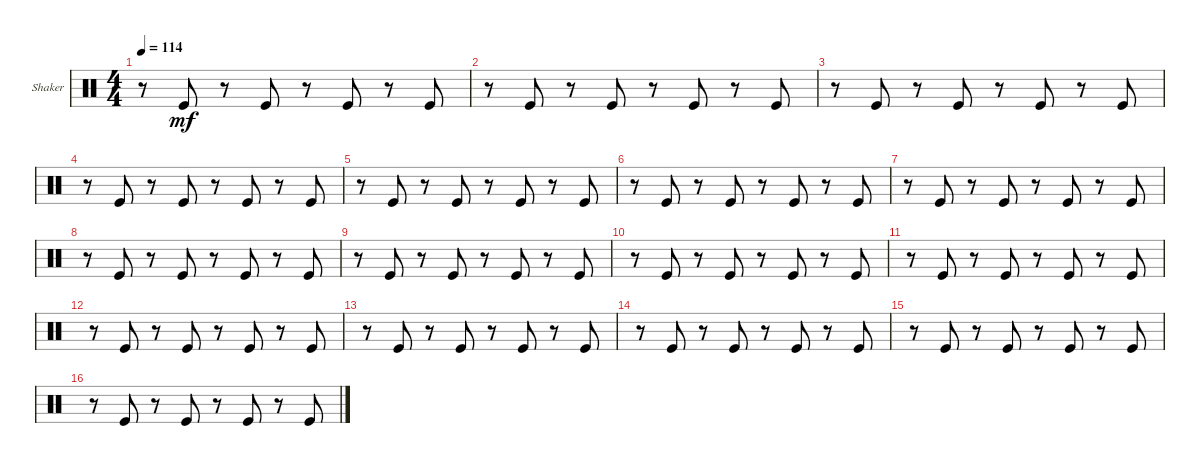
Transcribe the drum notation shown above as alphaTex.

\defaultSystemsLayout 4
\bracketExtendMode groupsimilarinstruments
\firstSystemTrackNameOrientation horizontal
\otherSystemsTrackNameOrientation horizontal
\track ("Shaker" "Shaker") {instrument percussion}
\staff {score}
\articulation defaults
\ts (4 4)
\tempo 114
\clef neutral
\ks c
r.8{dy mf} "Kick (hit)".8 r.8 "Kick (hit)".8 r.8 "Kick (hit)".8 r.8 "Kick (hit)".8 |
r.8 "Kick (hit)".8 r.8 "Kick (hit)".8 r.8 "Kick (hit)".8 r.8 "Kick (hit)".8 |
r.8 "Kick (hit)".8 r.8 "Kick (hit)".8 r.8 "Kick (hit)".8 r.8 "Kick (hit)".8 |
r.8 "Kick (hit)".8 r.8 "Kick (hit)".8 r.8 "Kick (hit)".8 r.8 "Kick (hit)".8 |
r.8 "Kick (hit)".8 r.8 "Kick (hit)".8 r.8 "Kick (hit)".8 r.8 "Kick (hit)".8 |
r.8 "Kick (hit)".8 r.8 "Kick (hit)".8 r.8 "Kick (hit)".8 r.8 "Kick (hit)".8 |
r.8 "Kick (hit)".8 r.8 "Kick (hit)".8 r.8 "Kick (hit)".8 r.8 "Kick (hit)".8 |
r.8 "Kick (hit)".8 r.8 "Kick (hit)".8 r.8 "Kick (hit)".8 r.8 "Kick (hit)".8 |
r.8 "Kick (hit)".8 r.8 "Kick (hit)".8 r.8 "Kick (hit)".8 r.8 "Kick (hit)".8 |
r.8 "Kick (hit)".8 r.8 "Kick (hit)".8 r.8 "Kick (hit)".8 r.8 "Kick (hit)".8 |
r.8 "Kick (hit)".8 r.8 "Kick (hit)".8 r.8 "Kick (hit)".8 r.8 "Kick (hit)".8 |
r.8 "Kick (hit)".8 r.8 "Kick (hit)".8 r.8 "Kick (hit)".8 r.8 "Kick (hit)".8 |
r.8 "Kick (hit)".8 r.8 "Kick (hit)".8 r.8 "Kick (hit)".8 r.8 "Kick (hit)".8 |
r.8 "Kick (hit)".8 r.8 "Kick (hit)".8 r.8 "Kick (hit)".8 r.8 "Kick (hit)".8 |
r.8 "Kick (hit)".8 r.8 "Kick (hit)".8 r.8 "Kick (hit)".8 r.8 "Kick (hit)".8 |
r.8 "Kick (hit)".8 r.8 "Kick (hit)".8 r.8 "Kick (hit)".8 r.8 "Kick (hit)".8
